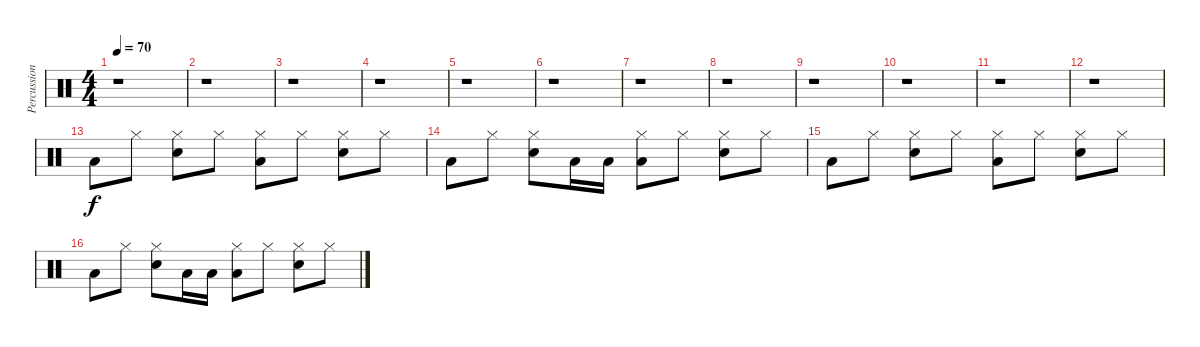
\track ("Percussion" "Percussion") {instrument percussion}
\staff {score}
\articulation defaults
\ts (4 4)
\tempo 70
\clef neutral
\ks c
r.1{dy f} |
r.1 |
r.1 |
r.1 |
r.1 |
r.1 |
r.1 |
r.1 |
r.1 |
r.1 |
r.1 |
r.1 |
"Low Floor Tom (hit)".8 "Hi-Hat (closed)".8 ("Snare (hit) 2" "Hi-Hat (closed)").8 "Hi-Hat (closed)".8 ("Low Floor Tom (hit)" "Hi-Hat (closed)").8 "Hi-Hat (closed)".8 ("Snare (hit) 2" "Hi-Hat (closed)").8 "Hi-Hat (closed)".8 |
"Low Floor Tom (hit)".8 "Hi-Hat (closed)".8 ("Snare (hit) 2" "Hi-Hat (closed)").8 "Low Floor Tom (hit)".16 "Low Floor Tom (hit)".16 ("Low Floor Tom (hit)" "Hi-Hat (closed)").8 "Hi-Hat (closed)".8 ("Hi-Hat (closed)" "Snare (hit) 2").8 "Hi-Hat (closed)".8 |
"Low Floor Tom (hit)".8 "Hi-Hat (closed)".8 ("Snare (hit) 2" "Hi-Hat (closed)").8 "Hi-Hat (closed)".8 ("Low Floor Tom (hit)" "Hi-Hat (closed)").8 "Hi-Hat (closed)".8 ("Snare (hit) 2" "Hi-Hat (closed)").8 "Hi-Hat (closed)".8 |
"Low Floor Tom (hit)".8 "Hi-Hat (closed)".8 ("Snare (hit) 2" "Hi-Hat (closed)").8 "Low Floor Tom (hit)".16 "Low Floor Tom (hit)".16 ("Low Floor Tom (hit)" "Hi-Hat (closed)").8 "Hi-Hat (closed)".8 ("Hi-Hat (closed)" "Snare (hit) 2").8 "Hi-Hat (closed)".8
